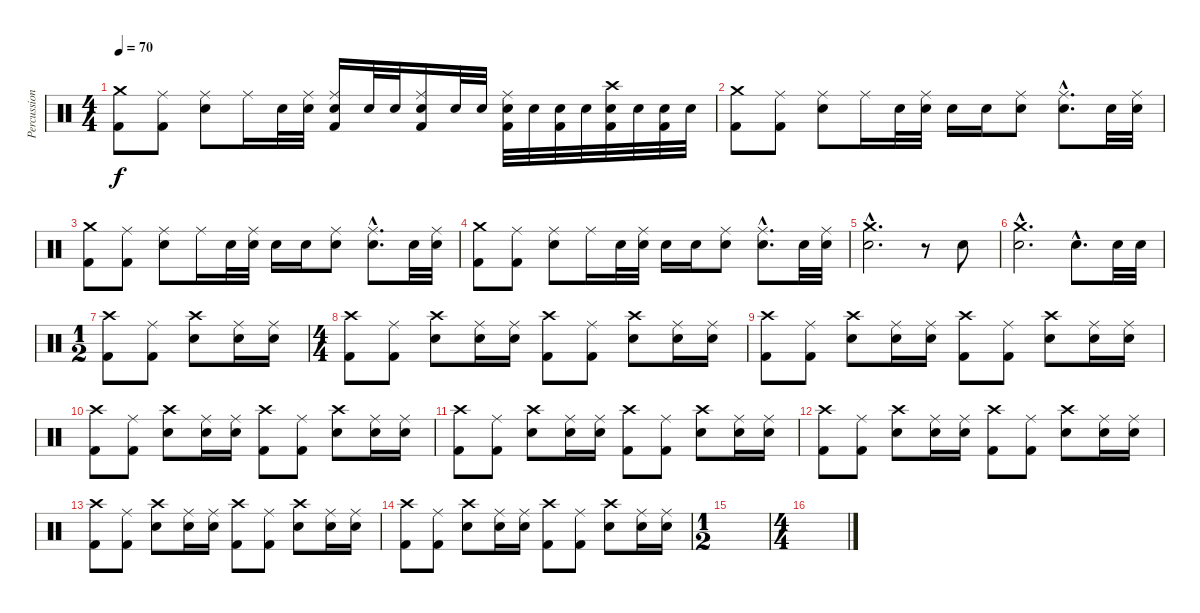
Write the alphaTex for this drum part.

\track ("Percussion" "Percussion") {instrument percussion}
\staff {score}
\articulation defaults
\ts (4 4)
\tempo 70
\clef neutral
\ks c
("Crash medium (hit)" "Kick (hit) 2").8{dy f} ("Ride (middle)" "Kick (hit) 2").8 ("Ride (middle)" "Electric Snare (hit)").8 "Ride (middle)".16 "Electric Snare (hit)".32 ("Ride (middle)" "Electric Snare (hit)").32 ("Ride (middle)" "Electric Snare (hit)" "Kick (hit) 2").16 "Electric Snare (hit)".32 "Electric Snare (hit)".32 ("Ride (middle)" "Electric Snare (hit)" "Kick (hit) 2").16 "Electric Snare (hit)".32 "Electric Snare (hit)".32 ("Ride (middle)" "Electric Snare (hit)" "Kick (hit) 2").32 "Electric Snare (hit)".32 ("Electric Snare (hit)" "Kick (hit) 2").32 "Electric Snare (hit)".32 ("Crash high (hit)" "Electric Snare (hit)" "Kick (hit) 2").32 "Electric Snare (hit)".32 ("Electric Snare (hit)" "Kick (hit) 2").32 "Electric Snare (hit)".32 |
("Crash medium (hit)" "Kick (hit) 2").8 ("Ride (middle)" "Kick (hit) 2").8 ("Ride (middle)" "Electric Snare (hit)").8 "Ride (middle)".16 "Electric Snare (hit)".32 ("Ride (middle)" "Electric Snare (hit)").32 "Electric Snare (hit)".16 "Electric Snare (hit)".16 ("Ride (middle)" "Electric Snare (hit)").8 ("Ride (middle)"{hac} "Electric Snare (hit)"{hac}).8{d} "Electric Snare (hit)".32 ("Ride (middle)" "Electric Snare (hit)").32 |
("Crash medium (hit)" "Kick (hit) 2").8 ("Ride (middle)" "Kick (hit) 2").8 ("Ride (middle)" "Electric Snare (hit)").8 "Ride (middle)".16 "Electric Snare (hit)".32 ("Ride (middle)" "Electric Snare (hit)").32 "Electric Snare (hit)".16 "Electric Snare (hit)".16 ("Ride (middle)" "Electric Snare (hit)").8 ("Ride (middle)"{hac} "Electric Snare (hit)"{hac}).8{d} "Electric Snare (hit)".32 ("Ride (middle)" "Electric Snare (hit)").32 |
("Crash medium (hit)" "Kick (hit) 2").8 ("Ride (middle)" "Kick (hit) 2").8 ("Ride (middle)" "Electric Snare (hit)").8 "Ride (middle)".16 "Electric Snare (hit)".32 ("Ride (middle)" "Electric Snare (hit)").32 "Electric Snare (hit)".16 "Electric Snare (hit)".16 ("Ride (middle)" "Electric Snare (hit)").8 ("Ride (middle)"{hac} "Electric Snare (hit)"{hac}).8{d} "Electric Snare (hit)".32 ("Ride (middle)" "Electric Snare (hit)").32 |
("Crash medium (hit)"{hac} "Electric Snare (hit)"{hac}).2{d} r.8 "Electric Snare (hit)".8 |
("Crash medium (hit)"{hac} "Electric Snare (hit)"{hac}).2{d} "Electric Snare (hit)"{hac}.8{d} "Electric Snare (hit)".32 "Electric Snare (hit)".32 |
\ts (1 2)
("Crash high (hit)" "Kick (hit) 2").8 ("Ride (middle)" "Kick (hit) 2").8 ("Crash high (hit)" "Electric Snare (hit)").8 ("Ride (middle)" "Electric Snare (hit)").16 ("Ride (middle)" "Electric Snare (hit)").16 |
\ts (4 4)
("Crash high (hit)" "Kick (hit) 2").8 ("Ride (middle)" "Kick (hit) 2").8 ("Crash high (hit)" "Electric Snare (hit)").8 ("Ride (middle)" "Electric Snare (hit)").16 ("Ride (middle)" "Electric Snare (hit)").16 ("Crash high (hit)" "Kick (hit) 2").8 ("Ride (middle)" "Kick (hit) 2").8 ("Crash high (hit)" "Electric Snare (hit)").8 ("Ride (middle)" "Electric Snare (hit)").16 ("Ride (middle)" "Electric Snare (hit)").16 |
("Crash high (hit)" "Kick (hit) 2").8 ("Ride (middle)" "Kick (hit) 2").8 ("Crash high (hit)" "Electric Snare (hit)").8 ("Ride (middle)" "Electric Snare (hit)").16 ("Ride (middle)" "Electric Snare (hit)").16 ("Crash high (hit)" "Kick (hit) 2").8 ("Ride (middle)" "Kick (hit) 2").8 ("Crash high (hit)" "Electric Snare (hit)").8 ("Ride (middle)" "Electric Snare (hit)").16 ("Ride (middle)" "Electric Snare (hit)").16 |
("Crash high (hit)" "Kick (hit) 2").8 ("Ride (middle)" "Kick (hit) 2").8 ("Crash high (hit)" "Electric Snare (hit)").8 ("Ride (middle)" "Electric Snare (hit)").16 ("Ride (middle)" "Electric Snare (hit)").16 ("Crash high (hit)" "Kick (hit) 2").8 ("Ride (middle)" "Kick (hit) 2").8 ("Crash high (hit)" "Electric Snare (hit)").8 ("Ride (middle)" "Electric Snare (hit)").16 ("Ride (middle)" "Electric Snare (hit)").16 |
("Crash high (hit)" "Kick (hit) 2").8 ("Ride (middle)" "Kick (hit) 2").8 ("Crash high (hit)" "Electric Snare (hit)").8 ("Ride (middle)" "Electric Snare (hit)").16 ("Ride (middle)" "Electric Snare (hit)").16 ("Crash high (hit)" "Kick (hit) 2").8 ("Ride (middle)" "Kick (hit) 2").8 ("Crash high (hit)" "Electric Snare (hit)").8 ("Ride (middle)" "Electric Snare (hit)").16 ("Ride (middle)" "Electric Snare (hit)").16 |
("Crash high (hit)" "Kick (hit) 2").8 ("Ride (middle)" "Kick (hit) 2").8 ("Crash high (hit)" "Electric Snare (hit)").8 ("Ride (middle)" "Electric Snare (hit)").16 ("Ride (middle)" "Electric Snare (hit)").16 ("Crash high (hit)" "Kick (hit) 2").8 ("Ride (middle)" "Kick (hit) 2").8 ("Crash high (hit)" "Electric Snare (hit)").8 ("Ride (middle)" "Electric Snare (hit)").16 ("Ride (middle)" "Electric Snare (hit)").16 |
("Crash high (hit)" "Kick (hit) 2").8 ("Ride (middle)" "Kick (hit) 2").8 ("Crash high (hit)" "Electric Snare (hit)").8 ("Ride (middle)" "Electric Snare (hit)").16 ("Ride (middle)" "Electric Snare (hit)").16 ("Crash high (hit)" "Kick (hit) 2").8 ("Ride (middle)" "Kick (hit) 2").8 ("Crash high (hit)" "Electric Snare (hit)").8 ("Ride (middle)" "Electric Snare (hit)").16 ("Ride (middle)" "Electric Snare (hit)").16 |
("Crash high (hit)" "Kick (hit) 2").8 ("Ride (middle)" "Kick (hit) 2").8 ("Crash high (hit)" "Electric Snare (hit)").8 ("Ride (middle)" "Electric Snare (hit)").16 ("Ride (middle)" "Electric Snare (hit)").16 ("Crash high (hit)" "Kick (hit) 2").8 ("Ride (middle)" "Kick (hit) 2").8 ("Crash high (hit)" "Electric Snare (hit)").8 ("Ride (middle)" "Electric Snare (hit)").16 ("Ride (middle)" "Electric Snare (hit)").16 |
\ts (1 2)
|
\ts (4 4)
